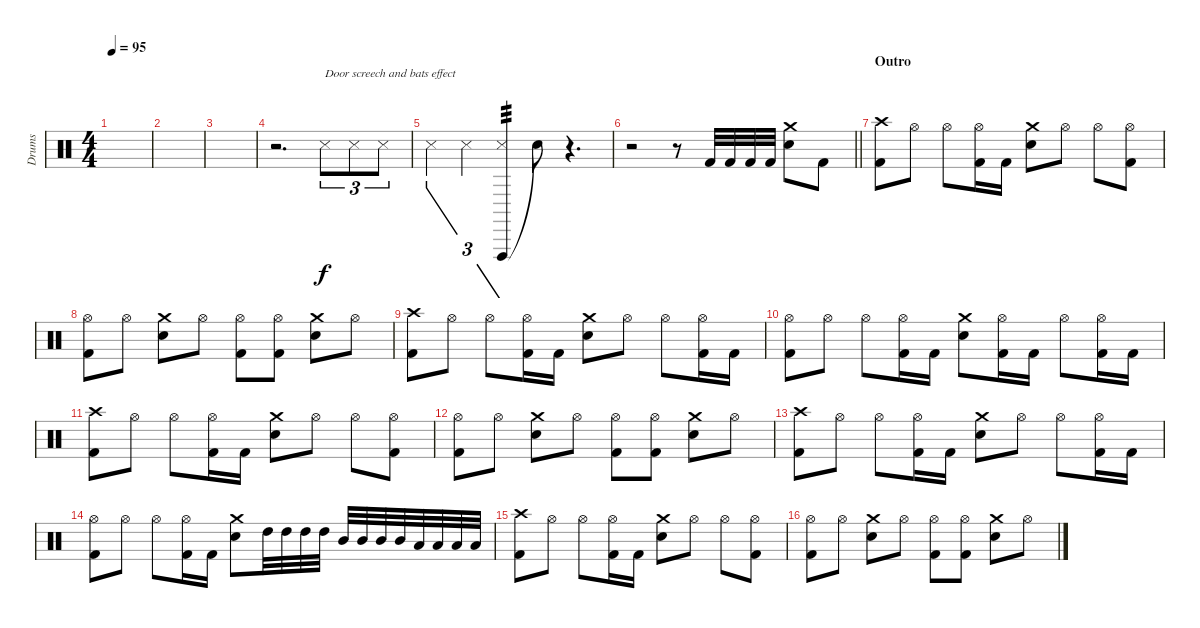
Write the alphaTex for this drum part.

\track ("Drums" "Drums") {instrument percussion}
\staff {score}
\articulation defaults
\ts (4 4)
\tempo 95
\clef neutral
\ks c
|
|
|
r.2{d} "Snare (side stick) 3".8{tu (3 2) txt "Door screech and bats effect"} "Snare (side stick) 3".8{tu (3 2)} "Snare (side stick) 3".8{tu (3 2)} |
"Snare (side stick) 3".4{tu (3 2)} "Snare (side stick) 3".4{tu (3 2)} ("Vibraslap (hit)" "Snare (side stick) 3").4{tu (3 2) tp 3} "Snare (hit)"{t}.8 r.4{d} |
\barLineRight lightlight
r.2 r.8 "Kick (hit) 2".32 "Kick (hit) 2".32 "Kick (hit) 2".32 "Kick (hit) 2".32 ("Crash medium (hit)" "Electric Snare (hit)").8 "Kick (hit) 2".8 |
\section ("" "Outro")
("Crash high (hit)" "Kick (hit) 2").8 "Hi-Hat (open)".8 "Hi-Hat (open)".8 ("Hi-Hat (open)" "Kick (hit) 2").16 "Kick (hit) 2".16 ("Crash medium (hit)" "Electric Snare (hit)").8 "Hi-Hat (open)".8 "Hi-Hat (open)".8 ("Hi-Hat (open)" "Kick (hit) 2").8 |
("Hi-Hat (open)" "Kick (hit) 2").8 "Hi-Hat (open)".8 ("Crash medium (hit)" "Electric Snare (hit)").8 "Hi-Hat (open)".8 ("Hi-Hat (open)" "Kick (hit) 2").8 ("Hi-Hat (open)" "Kick (hit) 2").8 ("Crash medium (hit)" "Electric Snare (hit)").8 "Hi-Hat (open)".8 |
("Crash high (hit)" "Kick (hit) 2").8 "Hi-Hat (open)".8 "Hi-Hat (open)".8 ("Hi-Hat (open)" "Kick (hit) 2").16 "Kick (hit) 2".16 ("Crash medium (hit)" "Electric Snare (hit)").8 "Hi-Hat (open)".8 "Hi-Hat (open)".8 ("Hi-Hat (open)" "Kick (hit) 2").16 "Kick (hit) 2".16 |
("Hi-Hat (open)" "Kick (hit) 2").8 "Hi-Hat (open)".8 "Hi-Hat (open)".8 ("Hi-Hat (open)" "Kick (hit) 2").16 "Kick (hit) 2".16 ("Crash medium (hit)" "Electric Snare (hit)").8 ("Hi-Hat (open)" "Kick (hit) 2").16 "Kick (hit) 2".16 "Hi-Hat (open)".8 ("Hi-Hat (open)" "Kick (hit) 2").16 "Kick (hit) 2".16 |
("Crash high (hit)" "Kick (hit) 2").8 "Hi-Hat (open)".8 "Hi-Hat (open)".8 ("Hi-Hat (open)" "Kick (hit) 2").16 "Kick (hit) 2".16 ("Crash medium (hit)" "Electric Snare (hit)").8 "Hi-Hat (open)".8 "Hi-Hat (open)".8 ("Hi-Hat (open)" "Kick (hit) 2").8 |
("Hi-Hat (open)" "Kick (hit) 2").8 "Hi-Hat (open)".8 ("Crash medium (hit)" "Electric Snare (hit)").8 "Hi-Hat (open)".8 ("Hi-Hat (open)" "Kick (hit) 2").8 ("Hi-Hat (open)" "Kick (hit) 2").8 ("Crash medium (hit)" "Electric Snare (hit)").8 "Hi-Hat (open)".8 |
("Crash high (hit)" "Kick (hit) 2").8 "Hi-Hat (open)".8 "Hi-Hat (open)".8 ("Hi-Hat (open)" "Kick (hit) 2").16 "Kick (hit) 2".16 ("Crash medium (hit)" "Electric Snare (hit)").8 "Hi-Hat (open)".8 "Hi-Hat (open)".8 ("Hi-Hat (open)" "Kick (hit) 2").16 "Kick (hit) 2".16 |
("Hi-Hat (open)" "Kick (hit) 2").8 "Hi-Hat (open)".8 "Hi-Hat (open)".8 ("Hi-Hat (open)" "Kick (hit) 2").16 "Kick (hit) 2".16 ("Crash medium (hit)" "Electric Snare (hit)").8 "High Tom (hit)".32 "High Tom (hit)".32 "High Tom (hit)".32 "High Tom (hit)".32 "Mid Tom (hit)".32 "Mid Tom (hit)".32 "Mid Tom (hit)".32 "Mid Tom (hit)".32 "Low Tom (hit)".32 "Low Tom (hit)".32 "Low Tom (hit)".32 "Low Tom (hit)".32 |
("Crash high (hit)" "Kick (hit) 2").8 "Hi-Hat (open)".8 "Hi-Hat (open)".8 ("Hi-Hat (open)" "Kick (hit) 2").16 "Kick (hit) 2".16 ("Crash medium (hit)" "Electric Snare (hit)").8 "Hi-Hat (open)".8 "Hi-Hat (open)".8 ("Hi-Hat (open)" "Kick (hit) 2").8 |
("Hi-Hat (open)" "Kick (hit) 2").8 "Hi-Hat (open)".8 ("Crash medium (hit)" "Electric Snare (hit)").8 "Hi-Hat (open)".8 ("Hi-Hat (open)" "Kick (hit) 2").8 ("Hi-Hat (open)" "Kick (hit) 2").8 ("Crash medium (hit)" "Electric Snare (hit)").8 "Hi-Hat (open)".8
